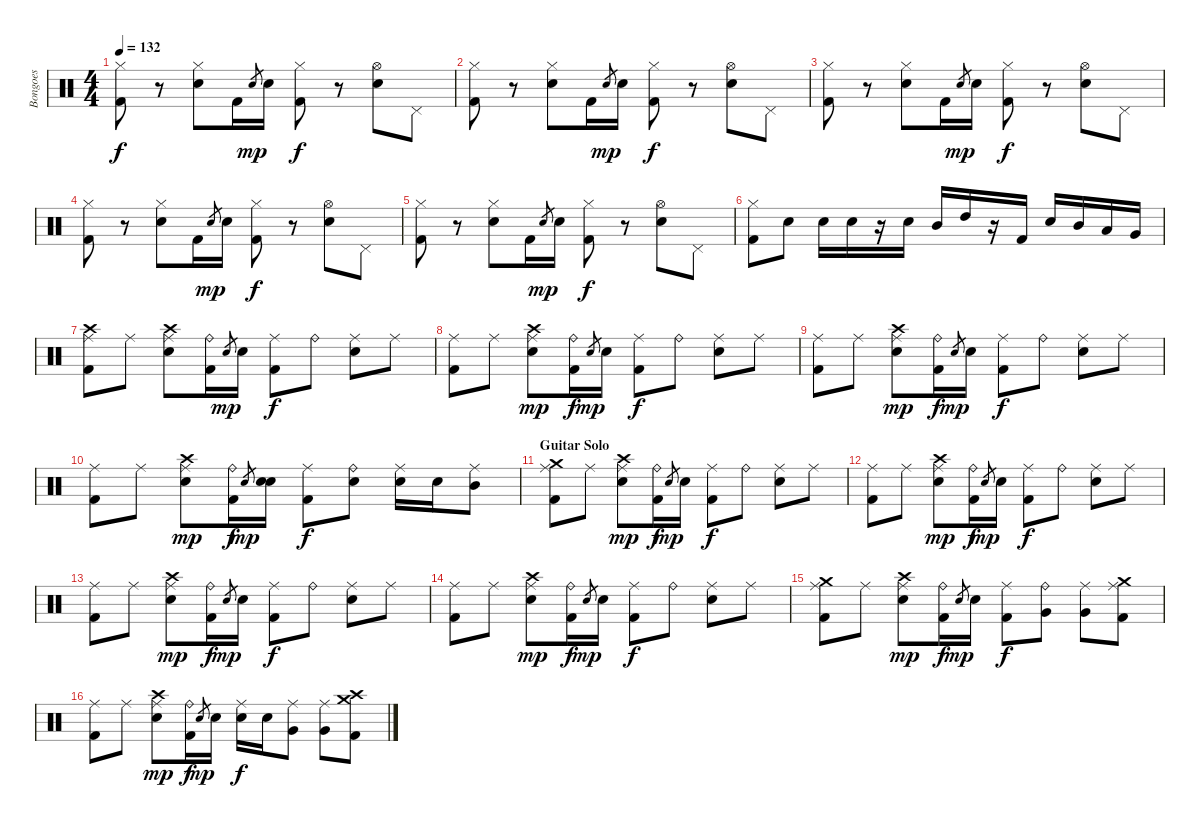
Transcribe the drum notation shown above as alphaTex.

\track ("Bongoes" "Bongoes") {instrument percussion}
\staff {score}
\articulation defaults
\ts (4 4)
\tempo 132
\clef neutral
\ks c
("Hi-Hat (closed)" "Kick (hit) 2").8{dy f} r.8 ("Hi-Hat (closed)" "Snare (hit) 2").8 "Kick (hit) 2".16 "Snare (hit) 2".8{gr dy mp} "Snare (hit) 2".16 ("Hi-Hat (closed)" "Kick (hit) 2").8{dy f} r.8 ("Hi-Hat (open)" "Snare (hit) 2").8 "Pedal Hi-Hat (hit)".8 |
("Hi-Hat (closed)" "Kick (hit) 2").8 r.8 ("Hi-Hat (closed)" "Snare (hit) 2").8 "Kick (hit) 2".16 "Snare (hit) 2".8{gr dy mp} "Snare (hit) 2".16 ("Hi-Hat (closed)" "Kick (hit) 2").8{dy f} r.8 ("Hi-Hat (open)" "Snare (hit) 2").8 "Pedal Hi-Hat (hit)".8 |
("Hi-Hat (closed)" "Kick (hit) 2").8 r.8 ("Hi-Hat (closed)" "Snare (hit) 2").8 "Kick (hit) 2".16 "Snare (hit) 2".8{gr dy mp} "Snare (hit) 2".16 ("Hi-Hat (closed)" "Kick (hit) 2").8{dy f} r.8 ("Hi-Hat (open)" "Snare (hit) 2").8 "Pedal Hi-Hat (hit)".8 |
("Hi-Hat (closed)" "Kick (hit) 2").8 r.8 ("Hi-Hat (closed)" "Snare (hit) 2").8 "Kick (hit) 2".16 "Snare (hit) 2".8{gr dy mp} "Snare (hit) 2".16 ("Hi-Hat (closed)" "Kick (hit) 2").8{dy f} r.8 ("Hi-Hat (open)" "Snare (hit) 2").8 "Pedal Hi-Hat (hit)".8 |
("Hi-Hat (closed)" "Kick (hit) 2").8 r.8 ("Hi-Hat (closed)" "Snare (hit) 2").8 "Kick (hit) 2".16 "Snare (hit) 2".8{gr dy mp} "Snare (hit) 2".16 ("Hi-Hat (closed)" "Kick (hit) 2").8{dy f} r.8 ("Hi-Hat (open)" "Snare (hit) 2").8 "Pedal Hi-Hat (hit)".8 |
("Hi-Hat (closed)" "Kick (hit) 2").8 "Snare (hit) 2".8 "Snare (hit) 2".16 "Snare (hit) 2".16 r.16 "Snare (hit) 2".16 "Mid Tom (hit)".16 "High Tom (hit)".16 r.16 "Kick (hit) 2".16 "Snare (hit) 2".16 "Mid Tom (hit)".16 "Low Tom (hit)".16 "Very Low Tom (hit)".16 |
("Ride (middle)" "Kick (hit) 2" "Crash high (hit)").8 "Ride (middle)".8 ("Ride (middle)" "Snare (hit) 2" "Crash high (hit)").8 ("Ride (bell)" "Kick (hit) 2").16 "Snare (hit) 2".8{gr dy mp} "Snare (hit) 2".16 ("Ride (middle)" "Kick (hit) 2").8{dy f} "Ride (bell)".8 ("Ride (middle)" "Snare (hit) 2").8 "Ride (middle)".8 |
("Ride (middle)" "Kick (hit) 2").8 "Ride (middle)".8 ("Ride (middle)" "Snare (hit) 2" "Crash high (hit)").8{dy mp} ("Ride (bell)" "Kick (hit) 2").16{dy f} "Snare (hit) 2".8{gr dy mp} "Snare (hit) 2".16 ("Ride (middle)" "Kick (hit) 2").8{dy f} "Ride (bell)".8 ("Ride (middle)" "Snare (hit) 2").8 "Ride (middle)".8 |
("Ride (middle)" "Kick (hit) 2").8 "Ride (middle)".8 ("Ride (middle)" "Snare (hit) 2" "Crash high (hit)").8{dy mp} ("Ride (bell)" "Kick (hit) 2").16{dy f} "Snare (hit) 2".8{gr dy mp} "Snare (hit) 2".16 ("Ride (middle)" "Kick (hit) 2").8{dy f} "Ride (bell)".8 ("Ride (middle)" "Snare (hit) 2").8 "Ride (middle)".8 |
("Ride (middle)" "Kick (hit) 2").8 "Ride (middle)".8 ("Ride (middle)" "Snare (hit) 2" "Crash high (hit)").8{dy mp} ("Ride (bell)" "Kick (hit) 2").16{dy f} "Snare (hit) 2".8{gr dy mp} ("Snare (hit) 2" "Snare (hit) 2").16 ("Ride (middle)" "Kick (hit) 2").8{dy f} ("Ride (bell)" "Snare (hit) 2").8 ("Ride (middle)" "Snare (hit) 2").16 "Snare (hit) 2".16 ("Ride (middle)" "Mid Tom (hit)").8 |
\section ("" "Guitar Solo")
("Ride (middle)" "Kick (hit) 2" "Crash medium (hit)").8 "Ride (middle)".8 ("Ride (middle)" "Snare (hit) 2" "Crash high (hit)").8{dy mp} ("Ride (bell)" "Kick (hit) 2").16{dy f} "Snare (hit) 2".8{gr dy mp} "Snare (hit) 2".16 ("Ride (middle)" "Kick (hit) 2").8{dy f} "Ride (bell)".8 ("Ride (middle)" "Snare (hit) 2").8 "Ride (middle)".8 |
("Ride (middle)" "Kick (hit) 2").8 "Ride (middle)".8 ("Ride (middle)" "Snare (hit) 2" "Crash high (hit)").8{dy mp} ("Ride (bell)" "Kick (hit) 2").16{dy f} "Snare (hit) 2".8{gr dy mp} "Snare (hit) 2".16 ("Ride (middle)" "Kick (hit) 2").8{dy f} "Ride (bell)".8 ("Ride (middle)" "Snare (hit) 2").8 "Ride (middle)".8 |
("Ride (middle)" "Kick (hit) 2").8 "Ride (middle)".8 ("Ride (middle)" "Snare (hit) 2" "Crash high (hit)").8{dy mp} ("Ride (bell)" "Kick (hit) 2").16{dy f} "Snare (hit) 2".8{gr dy mp} "Snare (hit) 2".16 ("Ride (middle)" "Kick (hit) 2").8{dy f} "Ride (bell)".8 ("Ride (middle)" "Snare (hit) 2").8 "Ride (middle)".8 |
("Ride (middle)" "Kick (hit) 2").8 "Ride (middle)".8 ("Ride (middle)" "Snare (hit) 2" "Crash high (hit)").8{dy mp} ("Ride (bell)" "Kick (hit) 2").16{dy f} "Snare (hit) 2".8{gr dy mp} "Snare (hit) 2".16 ("Ride (middle)" "Kick (hit) 2").8{dy f} "Ride (bell)".8 ("Ride (middle)" "Snare (hit) 2").8 "Ride (middle)".8 |
("Ride (middle)" "Kick (hit) 2" "Crash medium (hit)").8 "Ride (middle)".8 ("Ride (middle)" "Snare (hit) 2" "Crash high (hit)").8{dy mp} ("Ride (bell)" "Kick (hit) 2").16{dy f} "Snare (hit) 2".8{gr dy mp} "Snare (hit) 2".16 ("Ride (middle)" "Kick (hit) 2").8{dy f} ("Ride (bell)" "Very Low Tom (hit)").8 ("Ride (middle)" "Very Low Tom (hit)").8 ("Ride (middle)" "Kick (hit) 2" "Crash medium (hit)").8 |
("Ride (middle)" "Kick (hit) 2").8 "Ride (middle)".8 ("Ride (middle)" "Snare (hit) 2" "Crash high (hit)").8{dy mp} ("Ride (bell)" "Kick (hit) 2").16{dy f} "Snare (hit) 2".8{gr dy mp} "Snare (hit) 2".16 ("Ride (middle)" "Snare (hit) 2").16{dy f} "Snare (hit) 2".16 ("Ride (middle)" "Very Low Tom (hit)").8 ("Ride (middle)" "Very Low Tom (hit)").8 ("Kick (hit) 2" "Crash high (hit)" "Crash medium (hit)").8
